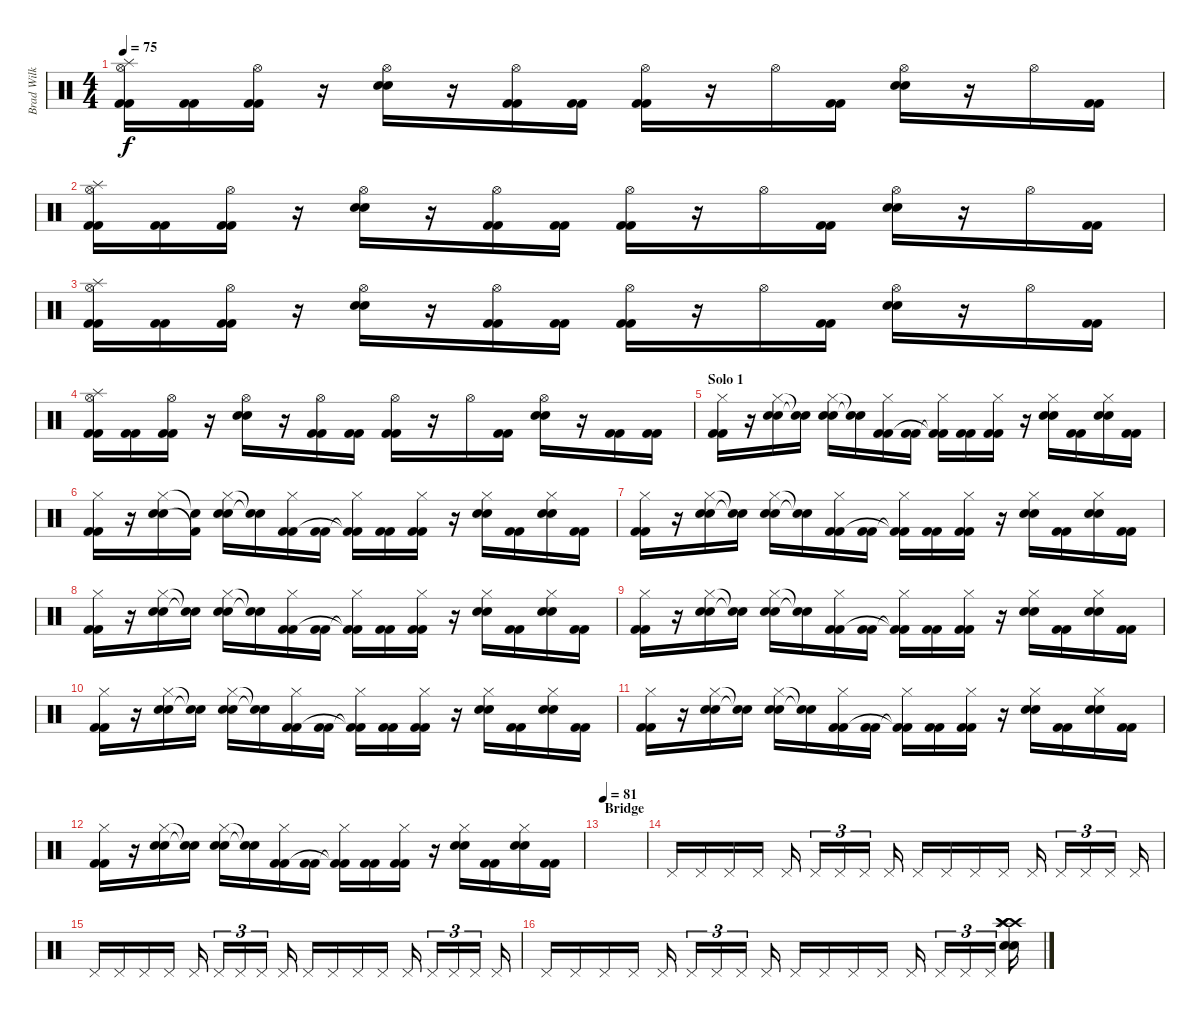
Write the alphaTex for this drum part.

\track ("Brad Wilk" "Brad Wilk") {instrument percussion}
\staff {score}
\articulation defaults
\ts (4 4)
\tempo 75
\clef neutral
\ks c
("Hi-Hat (open)" "Splash (hit)" "Kick (hit) 2" "Kick (hit) 2").16{dy f} ("Kick (hit) 2" "Kick (hit) 2").16 ("Hi-Hat (open)" "Kick (hit) 2" "Kick (hit) 2").16 r.16 ("Hi-Hat (open)" "Electric Snare (hit)" "Electric Snare (hit)").16 r.16 ("Hi-Hat (open)" "Kick (hit) 2" "Kick (hit) 2").16 ("Kick (hit) 2" "Kick (hit) 2").16 ("Hi-Hat (open)" "Kick (hit) 2" "Kick (hit) 2").16 r.16 "Hi-Hat (open)".16 ("Kick (hit) 2" "Kick (hit) 2").16 ("Hi-Hat (open)" "Electric Snare (hit)" "Electric Snare (hit)").16 r.16 "Hi-Hat (open)".16 ("Kick (hit) 2" "Kick (hit) 2").16 |
("Hi-Hat (open)" "Splash (hit)" "Kick (hit) 2" "Kick (hit) 2").16 ("Kick (hit) 2" "Kick (hit) 2").16 ("Hi-Hat (open)" "Kick (hit) 2" "Kick (hit) 2").16 r.16 ("Hi-Hat (open)" "Electric Snare (hit)" "Electric Snare (hit)").16 r.16 ("Hi-Hat (open)" "Kick (hit) 2" "Kick (hit) 2").16 ("Kick (hit) 2" "Kick (hit) 2").16 ("Hi-Hat (open)" "Kick (hit) 2" "Kick (hit) 2").16 r.16 "Hi-Hat (open)".16 ("Kick (hit) 2" "Kick (hit) 2").16 ("Hi-Hat (open)" "Electric Snare (hit)" "Electric Snare (hit)").16 r.16 "Hi-Hat (open)".16 ("Kick (hit) 2" "Kick (hit) 2").16 |
("Hi-Hat (open)" "Splash (hit)" "Kick (hit) 2" "Kick (hit) 2").16 ("Kick (hit) 2" "Kick (hit) 2").16 ("Hi-Hat (open)" "Kick (hit) 2" "Kick (hit) 2").16 r.16 ("Hi-Hat (open)" "Electric Snare (hit)" "Electric Snare (hit)").16 r.16 ("Hi-Hat (open)" "Kick (hit) 2" "Kick (hit) 2").16 ("Kick (hit) 2" "Kick (hit) 2").16 ("Hi-Hat (open)" "Kick (hit) 2" "Kick (hit) 2").16 r.16 "Hi-Hat (open)".16 ("Kick (hit) 2" "Kick (hit) 2").16 ("Hi-Hat (open)" "Electric Snare (hit)" "Electric Snare (hit)").16 r.16 "Hi-Hat (open)".16 ("Kick (hit) 2" "Kick (hit) 2").16 |
("Hi-Hat (open)" "Splash (hit)" "Kick (hit) 2" "Kick (hit) 2").16 ("Kick (hit) 2" "Kick (hit) 2").16 ("Hi-Hat (open)" "Kick (hit) 2" "Kick (hit) 2").16 r.16 ("Hi-Hat (open)" "Electric Snare (hit)" "Electric Snare (hit)").16 r.16 ("Hi-Hat (open)" "Kick (hit) 2" "Kick (hit) 2").16 ("Kick (hit) 2" "Kick (hit) 2").16 ("Hi-Hat (open)" "Kick (hit) 2" "Kick (hit) 2").16 r.16 "Hi-Hat (open)".16 ("Kick (hit) 2" "Kick (hit) 2").16 ("Hi-Hat (open)" "Electric Snare (hit)" "Electric Snare (hit)").16 r.16 ("Kick (hit) 2" "Kick (hit) 2").16 ("Kick (hit) 2" "Kick (hit) 2").16 |
\section ("" "Solo 1")
("Hi-Hat (closed)" "Kick (hit) 2" "Kick (hit) 2").16 r.16 ("Hi-Hat (closed)" "Electric Snare (hit)" "Electric Snare (hit)").16 ("Electric Snare (hit)"{t} "Electric Snare (hit)"{t}).16 ("Hi-Hat (closed)" "Electric Snare (hit)" "Electric Snare (hit)").16 ("Snare (hit)"{t} "Snare (hit)"{t}).16 ("Hi-Hat (closed)" "Kick (hit) 2" "Kick (hit) 2").16 ("Kick (hit) 2" "Kick (hit) 2").16 ("Hi-Hat (closed)" "Kick (hit) 2"{t} "Kick (hit) 2"{t}).16 ("Kick (hit) 2" "Kick (hit) 2").16 ("Hi-Hat (closed)" "Kick (hit) 2" "Kick (hit) 2").16 r.16 ("Hi-Hat (closed)" "Electric Snare (hit)" "Electric Snare (hit)").16 ("Kick (hit) 2" "Kick (hit) 2").16 ("Hi-Hat (closed)" "Electric Snare (hit)" "Electric Snare (hit)").16 ("Kick (hit) 2" "Kick (hit) 2").16 |
("Hi-Hat (closed)" "Kick (hit) 2" "Kick (hit) 2").16 r.16 ("Hi-Hat (closed)" "Electric Snare (hit)" "Electric Snare (hit)").16 ("Snare (hit)"{t} "Kick (hit) 2"{t}).16 ("Hi-Hat (closed)" "Electric Snare (hit)" "Electric Snare (hit)").16 ("Snare (hit)"{t} "Snare (hit)"{t}).16 ("Hi-Hat (closed)" "Kick (hit) 2" "Kick (hit) 2").16 ("Kick (hit) 2" "Kick (hit) 2").16 ("Hi-Hat (closed)" "Kick (hit) 2"{t} "Kick (hit) 2"{t}).16 ("Kick (hit) 2" "Kick (hit) 2").16 ("Hi-Hat (closed)" "Kick (hit) 2" "Kick (hit) 2").16 r.16 ("Hi-Hat (closed)" "Electric Snare (hit)" "Electric Snare (hit)").16 ("Kick (hit) 2" "Kick (hit) 2").16 ("Hi-Hat (closed)" "Electric Snare (hit)" "Electric Snare (hit)").16 ("Kick (hit) 2" "Kick (hit) 2").16 |
("Hi-Hat (closed)" "Kick (hit) 2" "Kick (hit) 2").16 r.16 ("Hi-Hat (closed)" "Electric Snare (hit)" "Electric Snare (hit)").16 ("Electric Snare (hit)"{t} "Electric Snare (hit)"{t}).16 ("Hi-Hat (closed)" "Electric Snare (hit)" "Electric Snare (hit)").16 ("Snare (hit)"{t} "Snare (hit)"{t}).16 ("Hi-Hat (closed)" "Kick (hit) 2" "Kick (hit) 2").16 ("Kick (hit) 2" "Kick (hit) 2").16 ("Hi-Hat (closed)" "Kick (hit) 2"{t} "Kick (hit) 2"{t}).16 ("Kick (hit) 2" "Kick (hit) 2").16 ("Hi-Hat (closed)" "Kick (hit) 2" "Kick (hit) 2").16 r.16 ("Hi-Hat (closed)" "Electric Snare (hit)" "Electric Snare (hit)").16 ("Kick (hit) 2" "Kick (hit) 2").16 ("Hi-Hat (closed)" "Electric Snare (hit)" "Electric Snare (hit)").16 ("Kick (hit) 2" "Kick (hit) 2").16 |
("Hi-Hat (closed)" "Kick (hit) 2" "Kick (hit) 2").16 r.16 ("Hi-Hat (closed)" "Electric Snare (hit)" "Electric Snare (hit)").16 ("Electric Snare (hit)"{t} "Electric Snare (hit)"{t}).16 ("Hi-Hat (closed)" "Electric Snare (hit)" "Electric Snare (hit)").16 ("Snare (hit)"{t} "Snare (hit)"{t}).16 ("Hi-Hat (closed)" "Kick (hit) 2" "Kick (hit) 2").16 ("Kick (hit) 2" "Kick (hit) 2").16 ("Hi-Hat (closed)" "Kick (hit) 2"{t} "Kick (hit) 2"{t}).16 ("Kick (hit) 2" "Kick (hit) 2").16 ("Hi-Hat (closed)" "Kick (hit) 2" "Kick (hit) 2").16 r.16 ("Hi-Hat (closed)" "Electric Snare (hit)" "Electric Snare (hit)").16 ("Kick (hit) 2" "Kick (hit) 2").16 ("Hi-Hat (closed)" "Electric Snare (hit)" "Electric Snare (hit)").16 ("Kick (hit) 2" "Kick (hit) 2").16 |
("Hi-Hat (closed)" "Kick (hit) 2" "Kick (hit) 2").16 r.16 ("Hi-Hat (closed)" "Electric Snare (hit)" "Electric Snare (hit)").16 ("Electric Snare (hit)"{t} "Electric Snare (hit)"{t}).16 ("Hi-Hat (closed)" "Electric Snare (hit)" "Electric Snare (hit)").16 ("Snare (hit)"{t} "Snare (hit)"{t}).16 ("Hi-Hat (closed)" "Kick (hit) 2" "Kick (hit) 2").16 ("Kick (hit) 2" "Kick (hit) 2").16 ("Hi-Hat (closed)" "Kick (hit) 2"{t} "Kick (hit) 2"{t}).16 ("Kick (hit) 2" "Kick (hit) 2").16 ("Hi-Hat (closed)" "Kick (hit) 2" "Kick (hit) 2").16 r.16 ("Hi-Hat (closed)" "Electric Snare (hit)" "Electric Snare (hit)").16 ("Kick (hit) 2" "Kick (hit) 2").16 ("Hi-Hat (closed)" "Electric Snare (hit)" "Electric Snare (hit)").16 ("Kick (hit) 2" "Kick (hit) 2").16 |
("Hi-Hat (closed)" "Kick (hit) 2" "Kick (hit) 2").16 r.16 ("Hi-Hat (closed)" "Electric Snare (hit)" "Electric Snare (hit)").16 ("Electric Snare (hit)"{t} "Electric Snare (hit)"{t}).16 ("Hi-Hat (closed)" "Electric Snare (hit)" "Electric Snare (hit)").16 ("Snare (hit)"{t} "Snare (hit)"{t}).16 ("Hi-Hat (closed)" "Kick (hit) 2" "Kick (hit) 2").16 ("Kick (hit) 2" "Kick (hit) 2").16 ("Hi-Hat (closed)" "Kick (hit) 2"{t} "Kick (hit) 2"{t}).16 ("Kick (hit) 2" "Kick (hit) 2").16 ("Hi-Hat (closed)" "Kick (hit) 2" "Kick (hit) 2").16 r.16 ("Hi-Hat (closed)" "Electric Snare (hit)" "Electric Snare (hit)").16 ("Kick (hit) 2" "Kick (hit) 2").16 ("Hi-Hat (closed)" "Electric Snare (hit)" "Electric Snare (hit)").16 ("Kick (hit) 2" "Kick (hit) 2").16 |
("Hi-Hat (closed)" "Kick (hit) 2" "Kick (hit) 2").16 r.16 ("Hi-Hat (closed)" "Electric Snare (hit)" "Electric Snare (hit)").16 ("Electric Snare (hit)"{t} "Electric Snare (hit)"{t}).16 ("Hi-Hat (closed)" "Electric Snare (hit)" "Electric Snare (hit)").16 ("Snare (hit)"{t} "Snare (hit)"{t}).16 ("Hi-Hat (closed)" "Kick (hit) 2" "Kick (hit) 2").16 ("Kick (hit) 2" "Kick (hit) 2").16 ("Hi-Hat (closed)" "Kick (hit) 2"{t} "Kick (hit) 2"{t}).16 ("Kick (hit) 2" "Kick (hit) 2").16 ("Hi-Hat (closed)" "Kick (hit) 2" "Kick (hit) 2").16 r.16 ("Hi-Hat (closed)" "Electric Snare (hit)" "Electric Snare (hit)").16 ("Kick (hit) 2" "Kick (hit) 2").16 ("Hi-Hat (closed)" "Electric Snare (hit)" "Electric Snare (hit)").16 ("Kick (hit) 2" "Kick (hit) 2").16 |
("Hi-Hat (closed)" "Kick (hit) 2" "Kick (hit) 2").16 r.16 ("Hi-Hat (closed)" "Electric Snare (hit)" "Electric Snare (hit)").16 ("Electric Snare (hit)"{t} "Electric Snare (hit)"{t}).16 ("Hi-Hat (closed)" "Electric Snare (hit)" "Electric Snare (hit)").16 ("Snare (hit)"{t} "Snare (hit)"{t}).16 ("Hi-Hat (closed)" "Kick (hit) 2" "Kick (hit) 2").16 ("Kick (hit) 2" "Kick (hit) 2").16 ("Hi-Hat (closed)" "Kick (hit) 2"{t} "Kick (hit) 2"{t}).16 ("Kick (hit) 2" "Kick (hit) 2").16 ("Hi-Hat (closed)" "Kick (hit) 2" "Kick (hit) 2").16 r.16 ("Hi-Hat (closed)" "Electric Snare (hit)" "Electric Snare (hit)").16 ("Kick (hit) 2" "Kick (hit) 2").16 ("Hi-Hat (closed)" "Electric Snare (hit)" "Electric Snare (hit)").16 ("Kick (hit) 2" "Kick (hit) 2").16 |
\section ("" "Bridge")
\tempo 81
|
"Pedal Hi-Hat (hit)".16 "Pedal Hi-Hat (hit)".16 "Pedal Hi-Hat (hit)".16 "Pedal Hi-Hat (hit)".16 "Pedal Hi-Hat (hit)".16 "Pedal Hi-Hat (hit)".16{tu (3 2)} "Pedal Hi-Hat (hit)".16{tu (3 2)} "Pedal Hi-Hat (hit)".16{tu (3 2)} "Pedal Hi-Hat (hit)".16 "Pedal Hi-Hat (hit)".16 "Pedal Hi-Hat (hit)".16 "Pedal Hi-Hat (hit)".16 "Pedal Hi-Hat (hit)".16 "Pedal Hi-Hat (hit)".16 "Pedal Hi-Hat (hit)".16{tu (3 2)} "Pedal Hi-Hat (hit)".16{tu (3 2)} "Pedal Hi-Hat (hit)".16{tu (3 2)} "Pedal Hi-Hat (hit)".16 |
"Pedal Hi-Hat (hit)".16 "Pedal Hi-Hat (hit)".16 "Pedal Hi-Hat (hit)".16 "Pedal Hi-Hat (hit)".16 "Pedal Hi-Hat (hit)".16 "Pedal Hi-Hat (hit)".16{tu (3 2)} "Pedal Hi-Hat (hit)".16{tu (3 2)} "Pedal Hi-Hat (hit)".16{tu (3 2)} "Pedal Hi-Hat (hit)".16 "Pedal Hi-Hat (hit)".16 "Pedal Hi-Hat (hit)".16 "Pedal Hi-Hat (hit)".16 "Pedal Hi-Hat (hit)".16 "Pedal Hi-Hat (hit)".16 "Pedal Hi-Hat (hit)".16{tu (3 2)} "Pedal Hi-Hat (hit)".16{tu (3 2)} "Pedal Hi-Hat (hit)".16{tu (3 2)} "Pedal Hi-Hat (hit)".16 |
"Pedal Hi-Hat (hit)".16 "Pedal Hi-Hat (hit)".16 "Pedal Hi-Hat (hit)".16 "Pedal Hi-Hat (hit)".16 "Pedal Hi-Hat (hit)".16 "Pedal Hi-Hat (hit)".16{tu (3 2)} "Pedal Hi-Hat (hit)".16{tu (3 2)} "Pedal Hi-Hat (hit)".16{tu (3 2)} "Pedal Hi-Hat (hit)".16 "Pedal Hi-Hat (hit)".16 "Pedal Hi-Hat (hit)".16 "Pedal Hi-Hat (hit)".16 "Pedal Hi-Hat (hit)".16 "Pedal Hi-Hat (hit)".16 "Pedal Hi-Hat (hit)".16{tu (3 2)} "Pedal Hi-Hat (hit)".16{tu (3 2)} "Pedal Hi-Hat (hit)".16{tu (3 2)} ("Crash high (hit)" "Crash high (hit)" "Crash high (hit)" "Splash (hit)" "Electric Snare (hit)" "Electric Snare (hit)").16
